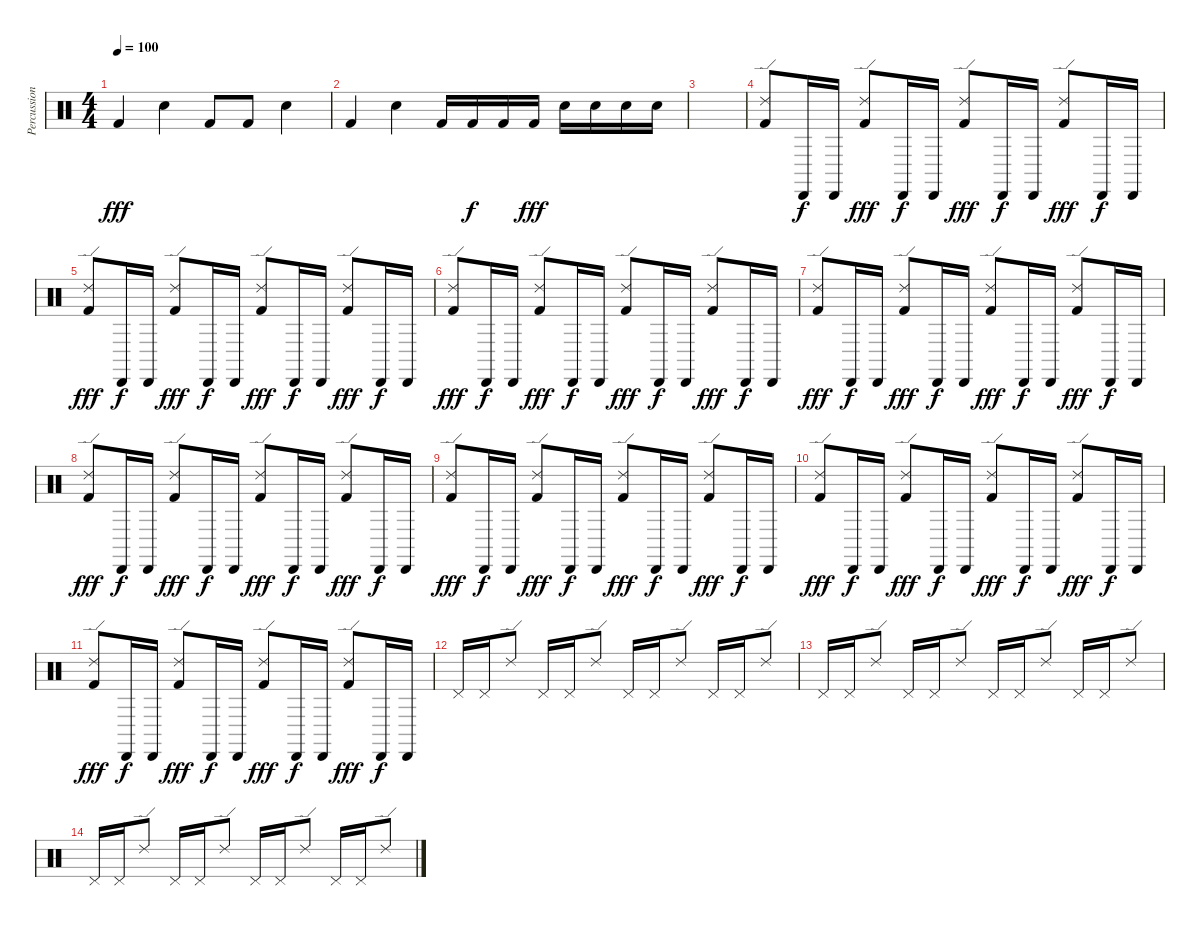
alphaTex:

\track ("Percussion" "Percussion") {instrument percussion}
\staff {score}
\articulation defaults
\ts (4 4)
\tempo 100
\clef neutral
\ks c "Kick (hit) 2".4{dy fff} "Electric Snare (hit)".4 "Kick (hit) 2".8 "Kick (hit) 2".8 "Electric Snare (hit)".4
|
"Kick (hit) 2".4 "Electric Snare (hit)".4 "Kick (hit) 2".16 "Kick (hit) 2".16{dy f} "Kick (hit) 2".16 "Kick (hit) 2".16{dy fff} "Electric Snare (hit)".16 "Electric Snare (hit)".16 "Electric Snare (hit)".16 "Electric Snare (hit)".16 |
|
("Ride (edge) 2" "Kick (hit) 2").8 "Cabasa (hit)".16{dy f} "Cabasa (hit)".16 ("Ride (edge) 2" "Kick (hit) 2").8{dy fff} "Cabasa (hit)".16{dy f} "Cabasa (hit)".16 ("Ride (edge) 2" "Kick (hit) 2").8{dy fff} "Cabasa (hit)".16{dy f} "Cabasa (hit)".16 ("Ride (edge) 2" "Kick (hit) 2").8{dy fff} "Cabasa (hit)".16{dy f} "Cabasa (hit)".16 |
("Ride (edge) 2" "Kick (hit) 2").8{dy fff} "Cabasa (hit)".16{dy f} "Cabasa (hit)".16 ("Ride (edge) 2" "Kick (hit) 2").8{dy fff} "Cabasa (hit)".16{dy f} "Cabasa (hit)".16 ("Ride (edge) 2" "Kick (hit) 2").8{dy fff} "Cabasa (hit)".16{dy f} "Cabasa (hit)".16 ("Ride (edge) 2" "Kick (hit) 2").8{dy fff} "Cabasa (hit)".16{dy f} "Cabasa (hit)".16 |
("Ride (edge) 2" "Kick (hit) 2").8{dy fff} "Cabasa (hit)".16{dy f} "Cabasa (hit)".16 ("Ride (edge) 2" "Kick (hit) 2").8{dy fff} "Cabasa (hit)".16{dy f} "Cabasa (hit)".16 ("Ride (edge) 2" "Kick (hit) 2").8{dy fff} "Cabasa (hit)".16{dy f} "Cabasa (hit)".16 ("Ride (edge) 2" "Kick (hit) 2").8{dy fff} "Cabasa (hit)".16{dy f} "Cabasa (hit)".16 |
("Ride (edge) 2" "Kick (hit) 2").8{dy fff} "Cabasa (hit)".16{dy f} "Cabasa (hit)".16 ("Ride (edge) 2" "Kick (hit) 2").8{dy fff} "Cabasa (hit)".16{dy f} "Cabasa (hit)".16 ("Ride (edge) 2" "Kick (hit) 2").8{dy fff} "Cabasa (hit)".16{dy f} "Cabasa (hit)".16 ("Ride (edge) 2" "Kick (hit) 2").8{dy fff} "Cabasa (hit)".16{dy f} "Cabasa (hit)".16 |
("Ride (edge) 2" "Kick (hit) 2").8{dy fff} "Cabasa (hit)".16{dy f} "Cabasa (hit)".16 ("Ride (edge) 2" "Kick (hit) 2").8{dy fff} "Cabasa (hit)".16{dy f} "Cabasa (hit)".16 ("Ride (edge) 2" "Kick (hit) 2").8{dy fff} "Cabasa (hit)".16{dy f} "Cabasa (hit)".16 ("Ride (edge) 2" "Kick (hit) 2").8{dy fff} "Cabasa (hit)".16{dy f} "Cabasa (hit)".16 |
("Ride (edge) 2" "Kick (hit) 2").8{dy fff} "Cabasa (hit)".16{dy f} "Cabasa (hit)".16 ("Ride (edge) 2" "Kick (hit) 2").8{dy fff} "Cabasa (hit)".16{dy f} "Cabasa (hit)".16 ("Ride (edge) 2" "Kick (hit) 2").8{dy fff} "Cabasa (hit)".16{dy f} "Cabasa (hit)".16 ("Ride (edge) 2" "Kick (hit) 2").8{dy fff} "Cabasa (hit)".16{dy f} "Cabasa (hit)".16 |
("Ride (edge) 2" "Kick (hit) 2").8{dy fff} "Cabasa (hit)".16{dy f} "Cabasa (hit)".16 ("Ride (edge) 2" "Kick (hit) 2").8{dy fff} "Cabasa (hit)".16{dy f} "Cabasa (hit)".16 ("Ride (edge) 2" "Kick (hit) 2").8{dy fff} "Cabasa (hit)".16{dy f} "Cabasa (hit)".16 ("Ride (edge) 2" "Kick (hit) 2").8{dy fff} "Cabasa (hit)".16{dy f} "Cabasa (hit)".16 |
("Ride (edge) 2" "Kick (hit) 2").8{dy fff} "Cabasa (hit)".16{dy f} "Cabasa (hit)".16 ("Ride (edge) 2" "Kick (hit) 2").8{dy fff} "Cabasa (hit)".16{dy f} "Cabasa (hit)".16 ("Ride (edge) 2" "Kick (hit) 2").8{dy fff} "Cabasa (hit)".16{dy f} "Cabasa (hit)".16 ("Ride (edge) 2" "Kick (hit) 2").8{dy fff} "Cabasa (hit)".16{dy f} "Cabasa (hit)".16 |
"Pedal Hi-Hat (hit)".16 "Pedal Hi-Hat (hit)".16 "Ride (edge) 2".8 "Pedal Hi-Hat (hit)".16 "Pedal Hi-Hat (hit)".16 "Ride (edge) 2".8 "Pedal Hi-Hat (hit)".16 "Pedal Hi-Hat (hit)".16 "Ride (edge) 2".8 "Pedal Hi-Hat (hit)".16 "Pedal Hi-Hat (hit)".16 "Ride (edge) 2".8 |
"Pedal Hi-Hat (hit)".16 "Pedal Hi-Hat (hit)".16 "Ride (edge) 2".8 "Pedal Hi-Hat (hit)".16 "Pedal Hi-Hat (hit)".16 "Ride (edge) 2".8 "Pedal Hi-Hat (hit)".16 "Pedal Hi-Hat (hit)".16 "Ride (edge) 2".8 "Pedal Hi-Hat (hit)".16 "Pedal Hi-Hat (hit)".16 "Ride (edge) 2".8 |
"Pedal Hi-Hat (hit)".16 "Pedal Hi-Hat (hit)".16 "Ride (edge) 2".8 "Pedal Hi-Hat (hit)".16 "Pedal Hi-Hat (hit)".16 "Ride (edge) 2".8 "Pedal Hi-Hat (hit)".16 "Pedal Hi-Hat (hit)".16 "Ride (edge) 2".8 "Pedal Hi-Hat (hit)".16 "Pedal Hi-Hat (hit)".16 "Ride (edge) 2".8
